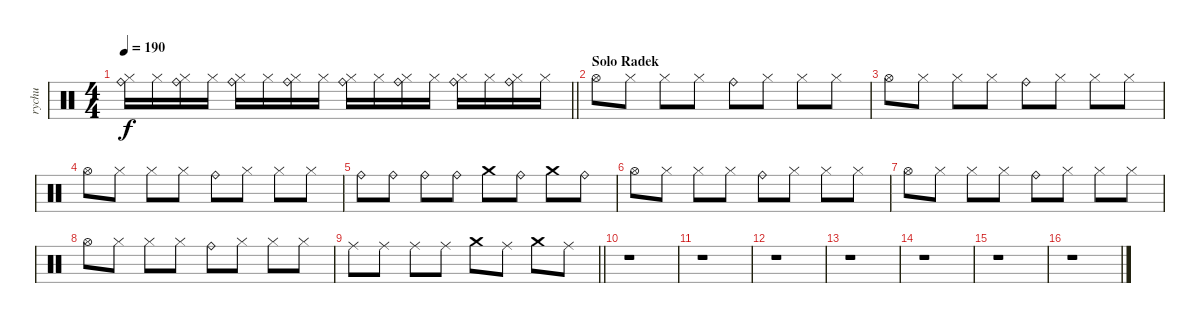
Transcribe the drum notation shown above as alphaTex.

\track ("rychu" "rychu") {instrument percussion}
\staff {score}
\articulation defaults
\ts (4 4)
\tempo 190
\clef neutral
\barLineRight lightlight
\ks c
("Ride (bell)" "Hi-Hat (closed)").16{dy f} "Hi-Hat (closed)".16 ("Ride (bell)" "Hi-Hat (closed)").16 "Hi-Hat (closed)".16 ("Ride (bell)" "Hi-Hat (closed)").16 "Hi-Hat (closed)".16 ("Ride (bell)" "Hi-Hat (closed)").16 "Hi-Hat (closed)".16 ("Ride (bell)" "Hi-Hat (closed)").16 "Hi-Hat (closed)".16 ("Ride (bell)" "Hi-Hat (closed)").16 "Hi-Hat (closed)".16 ("Ride (bell)" "Hi-Hat (closed)").16 "Hi-Hat (closed)".16 ("Ride (bell)" "Hi-Hat (closed)").16 "Hi-Hat (closed)".16 |
\section ("" "Solo Radek")
"Hi-Hat (open)".8 "Hi-Hat (closed)".8 "Hi-Hat (closed)".8 "Hi-Hat (closed)".8 "Ride (bell)".8 "Hi-Hat (closed)".8 "Hi-Hat (closed)".8 "Hi-Hat (closed)".8 |
"Hi-Hat (open)".8 "Hi-Hat (closed)".8 "Hi-Hat (closed)".8 "Hi-Hat (closed)".8 "Ride (bell)".8 "Hi-Hat (closed)".8 "Hi-Hat (closed)".8 "Hi-Hat (closed)".8 |
"Hi-Hat (open)".8 "Hi-Hat (closed)".8 "Hi-Hat (closed)".8 "Hi-Hat (closed)".8 "Ride (bell)".8 "Hi-Hat (closed)".8 "Hi-Hat (closed)".8 "Hi-Hat (closed)".8 |
"Ride (bell)".8 "Ride (bell)".8 "Ride (bell)".8 "Ride (bell)".8 "Crash medium (hit)".8 "Ride (bell)".8 "Crash medium (hit)".8 "Ride (bell)".8 |
"Hi-Hat (open)".8 "Hi-Hat (closed)".8 "Hi-Hat (closed)".8 "Hi-Hat (closed)".8 "Ride (bell)".8 "Hi-Hat (closed)".8 "Hi-Hat (closed)".8 "Hi-Hat (closed)".8 |
"Hi-Hat (open)".8 "Hi-Hat (closed)".8 "Hi-Hat (closed)".8 "Hi-Hat (closed)".8 "Ride (bell)".8 "Hi-Hat (closed)".8 "Hi-Hat (closed)".8 "Hi-Hat (closed)".8 |
"Hi-Hat (open)".8 "Hi-Hat (closed)".8 "Hi-Hat (closed)".8 "Hi-Hat (closed)".8 "Ride (bell)".8 "Hi-Hat (closed)".8 "Hi-Hat (closed)".8 "Hi-Hat (closed)".8 |
\barLineRight lightlight "Ride (middle)".8 "Ride (middle)".8 "Ride (middle)".8 "Ride (middle)".8 "Crash medium (hit)".8 "Ride (middle)".8 "Crash medium (hit)".8 "Ride (middle)".8
|
\section ("" "")
r.1 |
r.1 |
r.1 |
r.1 |
r.1 |
r.1 |
r.1
